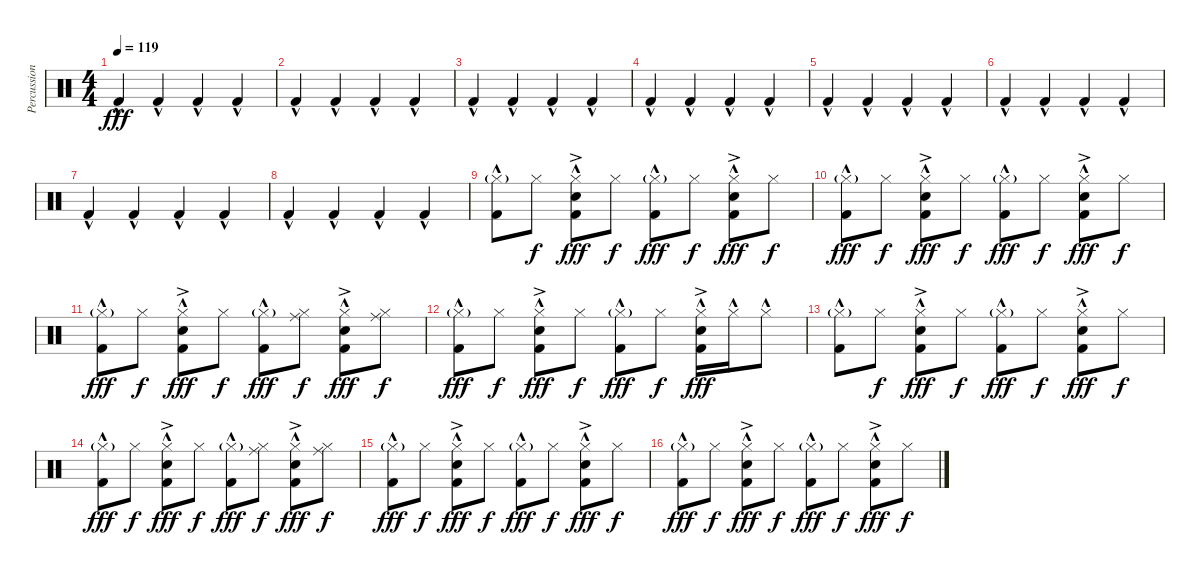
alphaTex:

\track ("Percussion" "Percussion") {instrument percussion}
\staff {score}
\articulation defaults
\ts (4 4)
\tempo 119
\clef neutral
\ks c "Kick (hit) 2"{hac}.4{dy fff} "Kick (hit) 2"{hac}.4 "Kick (hit) 2"{hac}.4 "Kick (hit) 2"{hac}.4
|
"Kick (hit) 2"{hac}.4 "Kick (hit) 2"{hac}.4 "Kick (hit) 2"{hac}.4 "Kick (hit) 2"{hac}.4 |
"Kick (hit) 2"{hac}.4 "Kick (hit) 2"{hac}.4 "Kick (hit) 2"{hac}.4 "Kick (hit) 2"{hac}.4 |
"Kick (hit) 2"{hac}.4 "Kick (hit) 2"{hac}.4 "Kick (hit) 2"{hac}.4 "Kick (hit) 2"{hac}.4 |
"Kick (hit) 2"{hac}.4 "Kick (hit) 2"{hac}.4 "Kick (hit) 2"{hac}.4 "Kick (hit) 2"{hac}.4 |
"Kick (hit) 2"{hac}.4 "Kick (hit) 2"{hac}.4 "Kick (hit) 2"{hac}.4 "Kick (hit) 2"{hac}.4 |
"Kick (hit) 2"{hac}.4 "Kick (hit) 2"{hac}.4 "Kick (hit) 2"{hac}.4 "Kick (hit) 2"{hac}.4 |
"Kick (hit) 2"{hac}.4 "Kick (hit) 2"{hac}.4 "Kick (hit) 2"{hac}.4 "Kick (hit) 2"{hac}.4 |
("Hi-Hat (closed)"{g} "Kick (hit) 2"{hac}).8 "Hi-Hat (closed)".8{dy f} ("Hi-Hat (closed)"{hac} "Electric Snare (hit)"{ac} "Kick (hit) 2"{hac}).8{dy fff} "Hi-Hat (closed)".8{dy f} ("Hi-Hat (closed)"{g} "Kick (hit) 2"{hac}).8{dy fff} "Hi-Hat (closed)".8{dy f} ("Hi-Hat (closed)"{hac} "Electric Snare (hit)"{ac} "Kick (hit) 2"{hac}).8{dy fff} "Hi-Hat (closed)".8{dy f} |
("Hi-Hat (closed)"{g} "Kick (hit) 2"{hac}).8{dy fff} "Hi-Hat (closed)".8{dy f} ("Hi-Hat (closed)"{hac} "Electric Snare (hit)"{ac} "Kick (hit) 2"{hac}).8{dy fff} "Hi-Hat (closed)".8{dy f} ("Hi-Hat (closed)"{g} "Kick (hit) 2"{hac}).8{dy fff} "Hi-Hat (closed)".8{dy f} ("Hi-Hat (closed)"{hac} "Electric Snare (hit)"{ac} "Kick (hit) 2"{hac}).8{dy fff} "Hi-Hat (closed)".8{dy f} |
("Hi-Hat (closed)"{g} "Kick (hit) 2"{hac}).8{dy fff} "Hi-Hat (closed)".8{dy f} ("Hi-Hat (closed)"{hac} "Electric Snare (hit)"{ac} "Kick (hit) 2"{hac}).8{dy fff} "Hi-Hat (closed)".8{dy f} ("Hi-Hat (closed)"{g} "Kick (hit) 2"{hac}).8{dy fff} ("Ride (middle)" "Hi-Hat (closed)").8{dy f} ("Hi-Hat (closed)"{hac} "Electric Snare (hit)"{ac} "Kick (hit) 2"{hac}).8{dy fff} ("Ride (middle)" "Hi-Hat (closed)").8{dy f} |
("Hi-Hat (closed)"{g} "Kick (hit) 2"{hac}).8{dy fff} "Hi-Hat (closed)".8{dy f} ("Hi-Hat (closed)"{hac} "Electric Snare (hit)"{ac} "Kick (hit) 2"{hac}).8{dy fff} "Hi-Hat (closed)".8{dy f} ("Hi-Hat (closed)"{g} "Kick (hit) 2"{hac}).8{dy fff} "Hi-Hat (closed)".8{dy f} ("Hi-Hat (closed)"{hac} "Electric Snare (hit)"{ac} "Kick (hit) 2"{hac}).16{dy fff} "Hi-Hat (closed)"{hac}.16 "Hi-Hat (closed)"{hac}.8 |
("Hi-Hat (closed)"{g} "Kick (hit) 2"{hac}).8 "Hi-Hat (closed)".8{dy f} ("Hi-Hat (closed)"{hac} "Electric Snare (hit)"{ac} "Kick (hit) 2"{hac}).8{dy fff} "Hi-Hat (closed)".8{dy f} ("Hi-Hat (closed)"{g} "Kick (hit) 2"{hac}).8{dy fff} "Hi-Hat (closed)".8{dy f} ("Hi-Hat (closed)"{hac} "Electric Snare (hit)"{ac} "Kick (hit) 2"{hac}).8{dy fff} "Hi-Hat (closed)".8{dy f} |
("Hi-Hat (closed)"{g} "Kick (hit) 2"{hac}).8{dy fff} "Hi-Hat (closed)".8{dy f} ("Hi-Hat (closed)"{hac} "Electric Snare (hit)"{ac} "Kick (hit) 2"{hac}).8{dy fff} "Hi-Hat (closed)".8{dy f} ("Hi-Hat (closed)"{g} "Kick (hit) 2"{hac}).8{dy fff} ("Ride (middle)" "Hi-Hat (closed)").8{dy f} ("Hi-Hat (closed)"{hac} "Electric Snare (hit)"{ac} "Kick (hit) 2"{hac}).8{dy fff} ("Ride (middle)" "Hi-Hat (closed)").8{dy f} |
("Hi-Hat (closed)"{g} "Kick (hit) 2"{hac}).8{dy fff} "Hi-Hat (closed)".8{dy f} ("Hi-Hat (closed)"{hac} "Electric Snare (hit)"{ac} "Kick (hit) 2"{hac}).8{dy fff} "Hi-Hat (closed)".8{dy f} ("Hi-Hat (closed)"{g} "Kick (hit) 2"{hac}).8{dy fff} "Hi-Hat (closed)".8{dy f} ("Hi-Hat (closed)"{hac} "Electric Snare (hit)"{ac} "Kick (hit) 2"{hac}).8{dy fff} "Hi-Hat (closed)".8{dy f} |
("Hi-Hat (closed)"{g} "Kick (hit) 2"{hac}).8{dy fff} "Hi-Hat (closed)".8{dy f} ("Hi-Hat (closed)"{hac} "Electric Snare (hit)"{ac} "Kick (hit) 2"{hac}).8{dy fff} "Hi-Hat (closed)".8{dy f} ("Hi-Hat (closed)"{g} "Kick (hit) 2"{hac}).8{dy fff} "Hi-Hat (closed)".8{dy f} ("Hi-Hat (closed)"{hac} "Electric Snare (hit)"{ac} "Kick (hit) 2"{hac}).8{dy fff} "Hi-Hat (closed)".8{dy f}
